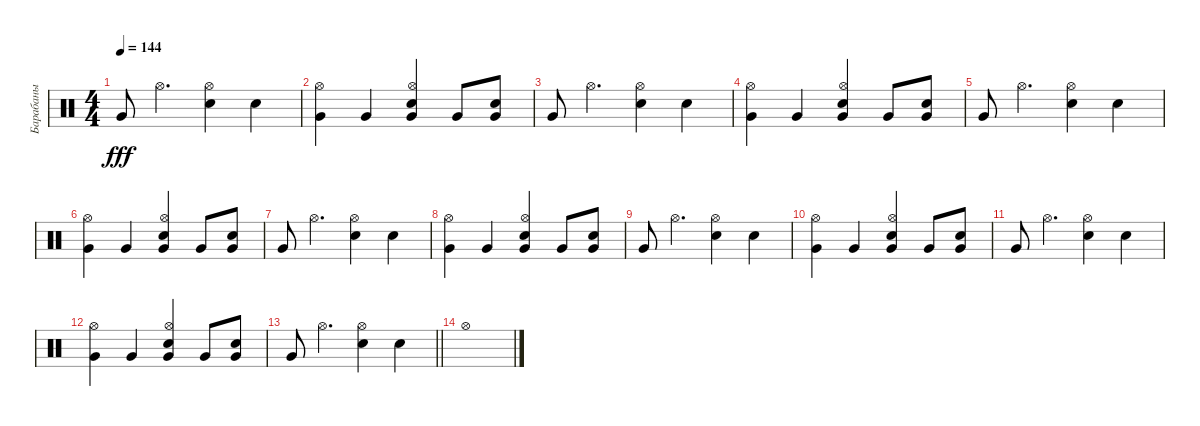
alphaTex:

\track ("Барабаны" "Барабаны") {instrument percussion}
\staff {score}
\articulation defaults
\ts (4 4)
\tempo 144
\clef neutral
\ks c "Very Low Tom (hit)".8{dy fff} "Hi-Hat (open)".4{d}
("Hi-Hat (open)" "Snare (hit) 2").4 "Snare (hit) 2".4 |
("Very Low Tom (hit)" "Hi-Hat (open)").4 "Very Low Tom (hit)".4 ("Electric Snare (hit)" "Very Low Tom (hit)" "Hi-Hat (open)").4 "Very Low Tom (hit)".8 ("Electric Snare (hit)" "Very Low Tom (hit)").8 |
"Very Low Tom (hit)".8 "Hi-Hat (open)".4{d} ("Hi-Hat (open)" "Snare (hit) 2").4 "Snare (hit) 2".4 |
("Very Low Tom (hit)" "Hi-Hat (open)").4 "Very Low Tom (hit)".4 ("Electric Snare (hit)" "Very Low Tom (hit)" "Hi-Hat (open)").4 "Very Low Tom (hit)".8 ("Electric Snare (hit)" "Very Low Tom (hit)").8 |
"Very Low Tom (hit)".8 "Hi-Hat (open)".4{d} ("Hi-Hat (open)" "Snare (hit) 2").4 "Snare (hit) 2".4 |
("Very Low Tom (hit)" "Hi-Hat (open)").4 "Very Low Tom (hit)".4 ("Electric Snare (hit)" "Very Low Tom (hit)" "Hi-Hat (open)").4 "Very Low Tom (hit)".8 ("Electric Snare (hit)" "Very Low Tom (hit)").8 |
"Very Low Tom (hit)".8 "Hi-Hat (open)".4{d} ("Hi-Hat (open)" "Snare (hit) 2").4 "Snare (hit) 2".4 |
("Very Low Tom (hit)" "Hi-Hat (open)").4 "Very Low Tom (hit)".4 ("Electric Snare (hit)" "Very Low Tom (hit)" "Hi-Hat (open)").4 "Very Low Tom (hit)".8 ("Electric Snare (hit)" "Very Low Tom (hit)").8 |
"Very Low Tom (hit)".8 "Hi-Hat (open)".4{d} ("Hi-Hat (open)" "Snare (hit) 2").4 "Snare (hit) 2".4 |
("Very Low Tom (hit)" "Hi-Hat (open)").4 "Very Low Tom (hit)".4 ("Electric Snare (hit)" "Very Low Tom (hit)" "Hi-Hat (open)").4 "Very Low Tom (hit)".8 ("Electric Snare (hit)" "Very Low Tom (hit)").8 |
"Very Low Tom (hit)".8 "Hi-Hat (open)".4{d} ("Hi-Hat (open)" "Snare (hit) 2").4 "Snare (hit) 2".4 |
("Very Low Tom (hit)" "Hi-Hat (open)").4 "Very Low Tom (hit)".4 ("Electric Snare (hit)" "Very Low Tom (hit)" "Hi-Hat (open)").4 "Very Low Tom (hit)".8 ("Electric Snare (hit)" "Very Low Tom (hit)").8 |
\barLineRight lightlight "Very Low Tom (hit)".8 "Hi-Hat (open)".4{d}
("Hi-Hat (open)" "Snare (hit) 2").4 "Snare (hit) 2".4 |
"Hi-Hat (open)".1
